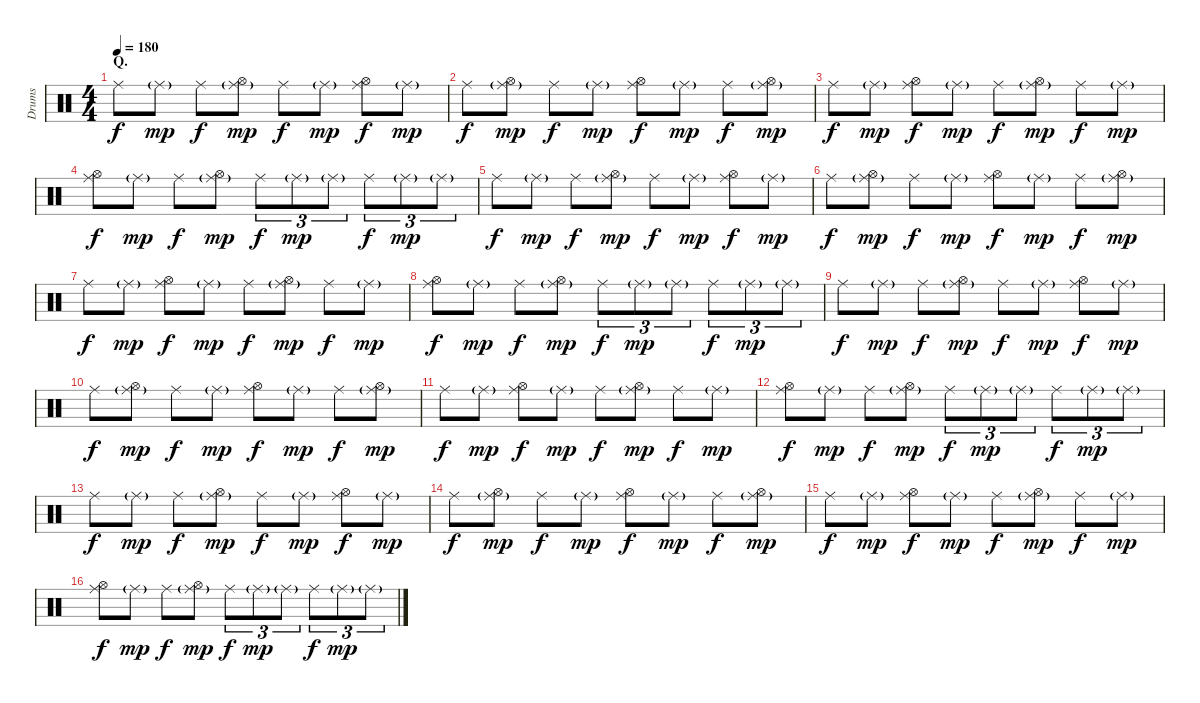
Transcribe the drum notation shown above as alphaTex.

\track ("Drums" "Drums") {instrument percussion}
\staff {score}
\articulation defaults
\ts (4 4)
\section ("" "Q.")
\tempo 180
\clef neutral
\ks c "Ride (middle)".8{dy f} "Ride (middle)"{g}.8{dy mp} "Ride (middle)".8{dy f}
("Ride (middle)"{g} "Hi-Hat (open)").8{dy mp} "Ride (middle)".8{dy f} "Ride (middle)"{g}.8{dy mp} ("Ride (middle)" "Hi-Hat (open)").8{dy f} "Ride (middle)"{g}.8{dy mp} |
"Ride (middle)".8{dy f} ("Ride (middle)"{g} "Hi-Hat (open)").8{dy mp} "Ride (middle)".8{dy f} "Ride (middle)"{g}.8{dy mp} ("Ride (middle)" "Hi-Hat (open)").8{dy f} "Ride (middle)"{g}.8{dy mp} "Ride (middle)".8{dy f} ("Ride (middle)"{g} "Hi-Hat (open)").8{dy mp} |
"Ride (middle)".8{dy f} "Ride (middle)"{g}.8{dy mp} ("Ride (middle)" "Hi-Hat (open)").8{dy f} "Ride (middle)"{g}.8{dy mp} "Ride (middle)".8{dy f} ("Ride (middle)"{g} "Hi-Hat (open)").8{dy mp} "Ride (middle)".8{dy f} "Ride (middle)"{g}.8{dy mp} |
("Ride (middle)" "Hi-Hat (open)").8{dy f} "Ride (middle)"{g}.8{dy mp} "Ride (middle)".8{dy f} ("Ride (middle)"{g} "Hi-Hat (open)").8{dy mp} "Ride (middle)".8{tu (3 2) dy f} "Ride (middle)"{g}.8{tu (3 2) dy mp} "Ride (middle)"{g}.8{tu (3 2)} "Ride (middle)".8{tu (3 2) dy f} "Ride (middle)"{g}.8{tu (3 2) dy mp} "Ride (middle)"{g}.8{tu (3 2)} |
"Ride (middle)".8{dy f} "Ride (middle)"{g}.8{dy mp} "Ride (middle)".8{dy f} ("Ride (middle)"{g} "Hi-Hat (open)").8{dy mp} "Ride (middle)".8{dy f} "Ride (middle)"{g}.8{dy mp} ("Ride (middle)" "Hi-Hat (open)").8{dy f} "Ride (middle)"{g}.8{dy mp} |
"Ride (middle)".8{dy f} ("Ride (middle)"{g} "Hi-Hat (open)").8{dy mp} "Ride (middle)".8{dy f} "Ride (middle)"{g}.8{dy mp} ("Ride (middle)" "Hi-Hat (open)").8{dy f} "Ride (middle)"{g}.8{dy mp} "Ride (middle)".8{dy f} ("Ride (middle)"{g} "Hi-Hat (open)").8{dy mp} |
"Ride (middle)".8{dy f} "Ride (middle)"{g}.8{dy mp} ("Ride (middle)" "Hi-Hat (open)").8{dy f} "Ride (middle)"{g}.8{dy mp} "Ride (middle)".8{dy f} ("Ride (middle)"{g} "Hi-Hat (open)").8{dy mp} "Ride (middle)".8{dy f} "Ride (middle)"{g}.8{dy mp} |
("Ride (middle)" "Hi-Hat (open)").8{dy f} "Ride (middle)"{g}.8{dy mp} "Ride (middle)".8{dy f} ("Ride (middle)"{g} "Hi-Hat (open)").8{dy mp} "Ride (middle)".8{tu (3 2) dy f} "Ride (middle)"{g}.8{tu (3 2) dy mp} "Ride (middle)"{g}.8{tu (3 2)} "Ride (middle)".8{tu (3 2) dy f} "Ride (middle)"{g}.8{tu (3 2) dy mp} "Ride (middle)"{g}.8{tu (3 2)} |
"Ride (middle)".8{dy f} "Ride (middle)"{g}.8{dy mp} "Ride (middle)".8{dy f} ("Ride (middle)"{g} "Hi-Hat (open)").8{dy mp} "Ride (middle)".8{dy f} "Ride (middle)"{g}.8{dy mp} ("Ride (middle)" "Hi-Hat (open)").8{dy f} "Ride (middle)"{g}.8{dy mp} |
"Ride (middle)".8{dy f} ("Ride (middle)"{g} "Hi-Hat (open)").8{dy mp} "Ride (middle)".8{dy f} "Ride (middle)"{g}.8{dy mp} ("Ride (middle)" "Hi-Hat (open)").8{dy f} "Ride (middle)"{g}.8{dy mp} "Ride (middle)".8{dy f} ("Ride (middle)"{g} "Hi-Hat (open)").8{dy mp} |
"Ride (middle)".8{dy f} "Ride (middle)"{g}.8{dy mp} ("Ride (middle)" "Hi-Hat (open)").8{dy f} "Ride (middle)"{g}.8{dy mp} "Ride (middle)".8{dy f} ("Ride (middle)"{g} "Hi-Hat (open)").8{dy mp} "Ride (middle)".8{dy f} "Ride (middle)"{g}.8{dy mp} |
("Ride (middle)" "Hi-Hat (open)").8{dy f} "Ride (middle)"{g}.8{dy mp} "Ride (middle)".8{dy f} ("Ride (middle)"{g} "Hi-Hat (open)").8{dy mp} "Ride (middle)".8{tu (3 2) dy f} "Ride (middle)"{g}.8{tu (3 2) dy mp} "Ride (middle)"{g}.8{tu (3 2)} "Ride (middle)".8{tu (3 2) dy f} "Ride (middle)"{g}.8{tu (3 2) dy mp} "Ride (middle)"{g}.8{tu (3 2)} |
"Ride (middle)".8{dy f} "Ride (middle)"{g}.8{dy mp} "Ride (middle)".8{dy f} ("Ride (middle)"{g} "Hi-Hat (open)").8{dy mp} "Ride (middle)".8{dy f} "Ride (middle)"{g}.8{dy mp} ("Ride (middle)" "Hi-Hat (open)").8{dy f} "Ride (middle)"{g}.8{dy mp} |
"Ride (middle)".8{dy f} ("Ride (middle)"{g} "Hi-Hat (open)").8{dy mp} "Ride (middle)".8{dy f} "Ride (middle)"{g}.8{dy mp} ("Ride (middle)" "Hi-Hat (open)").8{dy f} "Ride (middle)"{g}.8{dy mp} "Ride (middle)".8{dy f} ("Ride (middle)"{g} "Hi-Hat (open)").8{dy mp} |
"Ride (middle)".8{dy f} "Ride (middle)"{g}.8{dy mp} ("Ride (middle)" "Hi-Hat (open)").8{dy f} "Ride (middle)"{g}.8{dy mp} "Ride (middle)".8{dy f} ("Ride (middle)"{g} "Hi-Hat (open)").8{dy mp} "Ride (middle)".8{dy f} "Ride (middle)"{g}.8{dy mp} |
("Ride (middle)" "Hi-Hat (open)").8{dy f} "Ride (middle)"{g}.8{dy mp} "Ride (middle)".8{dy f} ("Ride (middle)"{g} "Hi-Hat (open)").8{dy mp} "Ride (middle)".8{tu (3 2) dy f} "Ride (middle)"{g}.8{tu (3 2) dy mp} "Ride (middle)"{g}.8{tu (3 2)} "Ride (middle)".8{tu (3 2) dy f} "Ride (middle)"{g}.8{tu (3 2) dy mp} "Ride (middle)"{g}.8{tu (3 2)}
